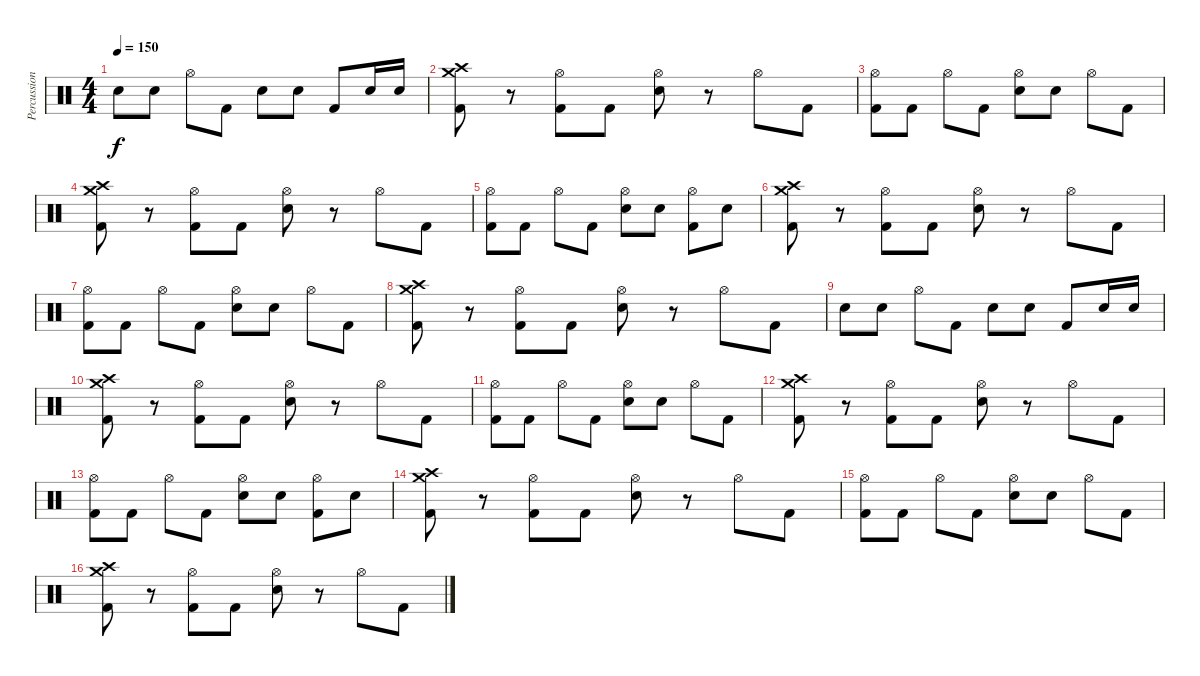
\track ("Percussion" "Percussion") {instrument percussion}
\staff {score}
\articulation defaults
\ts (4 4)
\tempo 150
\clef neutral
\ks c "Electric Snare (hit)".8{dy f} "Electric Snare (hit)".8 "Hi-Hat (open)".8 "Kick (hit) 2".8 "Electric Snare (hit)".8 "Electric Snare (hit)".8 "Kick (hit) 2".8 "Electric Snare (hit)".16 "Electric Snare (hit)".16
|
("Crash high (hit)" "Crash medium (hit)" "Kick (hit) 2").8 r.8 ("Hi-Hat (open)" "Kick (hit) 2").8 "Kick (hit) 2".8 ("Hi-Hat (open)" "Electric Snare (hit)").8 r.8 "Hi-Hat (open)".8 "Kick (hit) 2".8 |
("Hi-Hat (open)" "Kick (hit) 2").8 "Kick (hit) 2".8 "Hi-Hat (open)".8 "Kick (hit) 2".8 ("Hi-Hat (open)" "Electric Snare (hit)").8 "Electric Snare (hit)".8 "Hi-Hat (open)".8 "Kick (hit) 2".8 |
("Crash high (hit)" "Crash medium (hit)" "Kick (hit) 2").8 r.8 ("Hi-Hat (open)" "Kick (hit) 2").8 "Kick (hit) 2".8 ("Hi-Hat (open)" "Electric Snare (hit)").8 r.8 "Hi-Hat (open)".8 "Kick (hit) 2".8 |
("Hi-Hat (open)" "Kick (hit) 2").8 "Kick (hit) 2".8 "Hi-Hat (open)".8 "Kick (hit) 2".8 ("Hi-Hat (open)" "Electric Snare (hit)").8 "Electric Snare (hit)".8 ("Hi-Hat (open)" "Kick (hit) 2").8 "Electric Snare (hit)".8 |
("Crash high (hit)" "Crash medium (hit)" "Kick (hit) 2").8 r.8 ("Hi-Hat (open)" "Kick (hit) 2").8 "Kick (hit) 2".8 ("Hi-Hat (open)" "Electric Snare (hit)").8 r.8 "Hi-Hat (open)".8 "Kick (hit) 2".8 |
("Hi-Hat (open)" "Kick (hit) 2").8 "Kick (hit) 2".8 "Hi-Hat (open)".8 "Kick (hit) 2".8 ("Hi-Hat (open)" "Electric Snare (hit)").8 "Electric Snare (hit)".8 "Hi-Hat (open)".8 "Kick (hit) 2".8 |
("Crash high (hit)" "Crash medium (hit)" "Kick (hit) 2").8 r.8 ("Hi-Hat (open)" "Kick (hit) 2").8 "Kick (hit) 2".8 ("Hi-Hat (open)" "Electric Snare (hit)").8 r.8 "Hi-Hat (open)".8 "Kick (hit) 2".8 |
"Electric Snare (hit)".8 "Electric Snare (hit)".8 "Hi-Hat (open)".8 "Kick (hit) 2".8 "Electric Snare (hit)".8 "Electric Snare (hit)".8 "Kick (hit) 2".8 "Electric Snare (hit)".16 "Electric Snare (hit)".16 |
("Crash high (hit)" "Crash medium (hit)" "Kick (hit) 2").8 r.8 ("Hi-Hat (open)" "Kick (hit) 2").8 "Kick (hit) 2".8 ("Hi-Hat (open)" "Electric Snare (hit)").8 r.8 "Hi-Hat (open)".8 "Kick (hit) 2".8 |
("Hi-Hat (open)" "Kick (hit) 2").8 "Kick (hit) 2".8 "Hi-Hat (open)".8 "Kick (hit) 2".8 ("Hi-Hat (open)" "Electric Snare (hit)").8 "Electric Snare (hit)".8 "Hi-Hat (open)".8 "Kick (hit) 2".8 |
("Crash high (hit)" "Crash medium (hit)" "Kick (hit) 2").8 r.8 ("Hi-Hat (open)" "Kick (hit) 2").8 "Kick (hit) 2".8 ("Hi-Hat (open)" "Electric Snare (hit)").8 r.8 "Hi-Hat (open)".8 "Kick (hit) 2".8 |
("Hi-Hat (open)" "Kick (hit) 2").8 "Kick (hit) 2".8 "Hi-Hat (open)".8 "Kick (hit) 2".8 ("Hi-Hat (open)" "Electric Snare (hit)").8 "Electric Snare (hit)".8 ("Hi-Hat (open)" "Kick (hit) 2").8 "Electric Snare (hit)".8 |
("Crash high (hit)" "Crash medium (hit)" "Kick (hit) 2").8 r.8 ("Hi-Hat (open)" "Kick (hit) 2").8 "Kick (hit) 2".8 ("Hi-Hat (open)" "Electric Snare (hit)").8 r.8 "Hi-Hat (open)".8 "Kick (hit) 2".8 |
("Hi-Hat (open)" "Kick (hit) 2").8 "Kick (hit) 2".8 "Hi-Hat (open)".8 "Kick (hit) 2".8 ("Hi-Hat (open)" "Electric Snare (hit)").8 "Electric Snare (hit)".8 "Hi-Hat (open)".8 "Kick (hit) 2".8 |
("Crash high (hit)" "Crash medium (hit)" "Kick (hit) 2").8 r.8 ("Hi-Hat (open)" "Kick (hit) 2").8 "Kick (hit) 2".8 ("Hi-Hat (open)" "Electric Snare (hit)").8 r.8 "Hi-Hat (open)".8 "Kick (hit) 2".8
